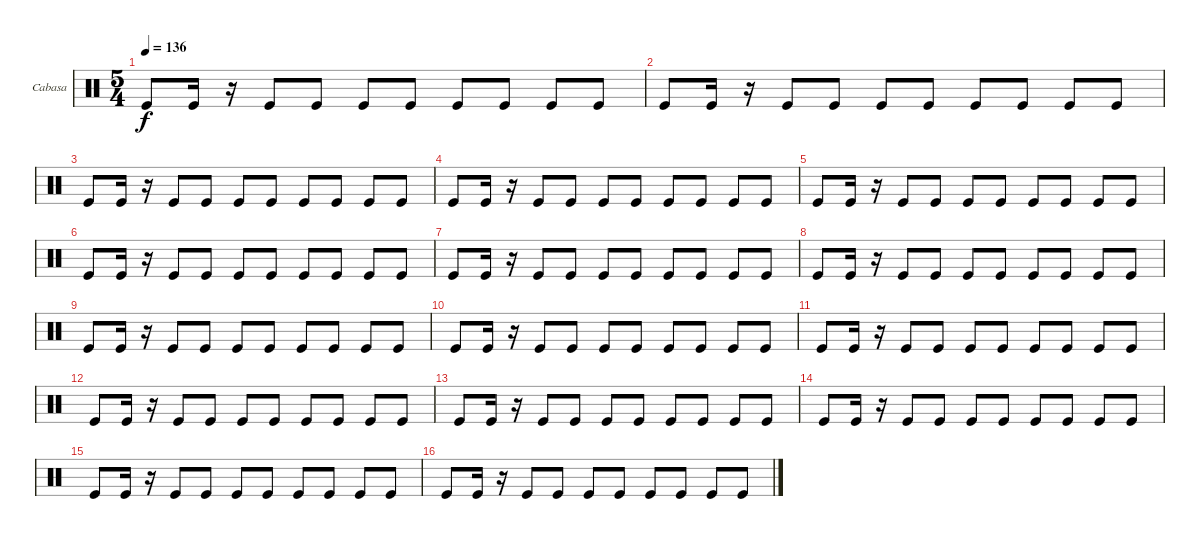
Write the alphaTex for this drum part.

\bracketExtendMode groupsimilarinstruments
\firstSystemTrackNameOrientation horizontal
\otherSystemsTrackNameOrientation horizontal
\track ("Cabasa" "Cabasa") {instrument percussion}
\staff {score}
\articulation defaults
\ts (5 4)
\tempo 136
\clef neutral
\ks c "Kick (hit)".8{dy f} "Kick (hit)".16
r.16 "Kick (hit)".8 "Kick (hit)".8 "Kick (hit)".8 "Kick (hit)".8 "Kick (hit)".8 "Kick (hit)".8 "Kick (hit)".8 "Kick (hit)".8 |
"Kick (hit)".8 "Kick (hit)".16 r.16 "Kick (hit)".8 "Kick (hit)".8 "Kick (hit)".8 "Kick (hit)".8 "Kick (hit)".8 "Kick (hit)".8 "Kick (hit)".8 "Kick (hit)".8 |
"Kick (hit)".8 "Kick (hit)".16 r.16 "Kick (hit)".8 "Kick (hit)".8 "Kick (hit)".8 "Kick (hit)".8 "Kick (hit)".8 "Kick (hit)".8 "Kick (hit)".8 "Kick (hit)".8 |
"Kick (hit)".8 "Kick (hit)".16 r.16 "Kick (hit)".8 "Kick (hit)".8 "Kick (hit)".8 "Kick (hit)".8 "Kick (hit)".8 "Kick (hit)".8 "Kick (hit)".8 "Kick (hit)".8 |
"Kick (hit)".8 "Kick (hit)".16 r.16 "Kick (hit)".8 "Kick (hit)".8 "Kick (hit)".8 "Kick (hit)".8 "Kick (hit)".8 "Kick (hit)".8 "Kick (hit)".8 "Kick (hit)".8 |
"Kick (hit)".8 "Kick (hit)".16 r.16 "Kick (hit)".8 "Kick (hit)".8 "Kick (hit)".8 "Kick (hit)".8 "Kick (hit)".8 "Kick (hit)".8 "Kick (hit)".8 "Kick (hit)".8 |
"Kick (hit)".8 "Kick (hit)".16 r.16 "Kick (hit)".8 "Kick (hit)".8 "Kick (hit)".8 "Kick (hit)".8 "Kick (hit)".8 "Kick (hit)".8 "Kick (hit)".8 "Kick (hit)".8 |
"Kick (hit)".8 "Kick (hit)".16 r.16 "Kick (hit)".8 "Kick (hit)".8 "Kick (hit)".8 "Kick (hit)".8 "Kick (hit)".8 "Kick (hit)".8 "Kick (hit)".8 "Kick (hit)".8 |
"Kick (hit)".8 "Kick (hit)".16 r.16 "Kick (hit)".8 "Kick (hit)".8 "Kick (hit)".8 "Kick (hit)".8 "Kick (hit)".8 "Kick (hit)".8 "Kick (hit)".8 "Kick (hit)".8 |
"Kick (hit)".8 "Kick (hit)".16 r.16 "Kick (hit)".8 "Kick (hit)".8 "Kick (hit)".8 "Kick (hit)".8 "Kick (hit)".8 "Kick (hit)".8 "Kick (hit)".8 "Kick (hit)".8 |
"Kick (hit)".8 "Kick (hit)".16 r.16 "Kick (hit)".8 "Kick (hit)".8 "Kick (hit)".8 "Kick (hit)".8 "Kick (hit)".8 "Kick (hit)".8 "Kick (hit)".8 "Kick (hit)".8 |
"Kick (hit)".8 "Kick (hit)".16 r.16 "Kick (hit)".8 "Kick (hit)".8 "Kick (hit)".8 "Kick (hit)".8 "Kick (hit)".8 "Kick (hit)".8 "Kick (hit)".8 "Kick (hit)".8 |
"Kick (hit)".8 "Kick (hit)".16 r.16 "Kick (hit)".8 "Kick (hit)".8 "Kick (hit)".8 "Kick (hit)".8 "Kick (hit)".8 "Kick (hit)".8 "Kick (hit)".8 "Kick (hit)".8 |
"Kick (hit)".8 "Kick (hit)".16 r.16 "Kick (hit)".8 "Kick (hit)".8 "Kick (hit)".8 "Kick (hit)".8 "Kick (hit)".8 "Kick (hit)".8 "Kick (hit)".8 "Kick (hit)".8 |
"Kick (hit)".8 "Kick (hit)".16 r.16 "Kick (hit)".8 "Kick (hit)".8 "Kick (hit)".8 "Kick (hit)".8 "Kick (hit)".8 "Kick (hit)".8 "Kick (hit)".8 "Kick (hit)".8 |
"Kick (hit)".8 "Kick (hit)".16 r.16 "Kick (hit)".8 "Kick (hit)".8 "Kick (hit)".8 "Kick (hit)".8 "Kick (hit)".8 "Kick (hit)".8 "Kick (hit)".8 "Kick (hit)".8
